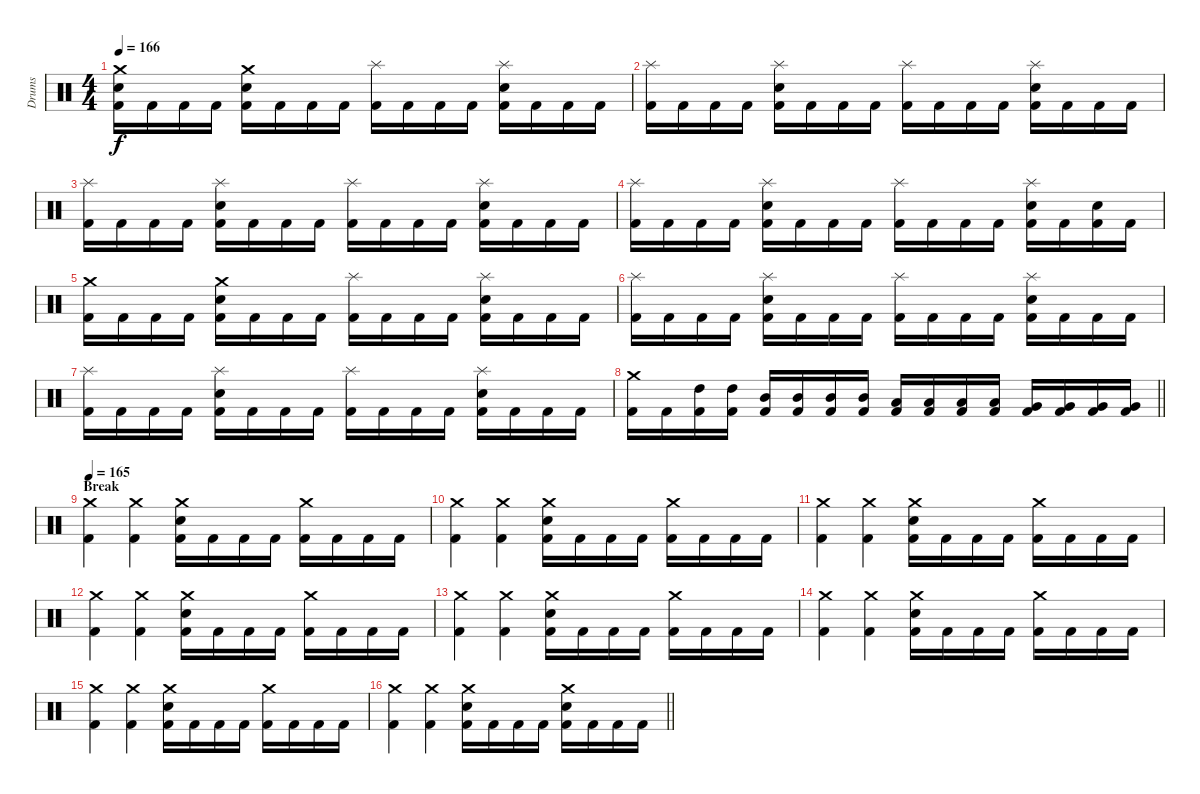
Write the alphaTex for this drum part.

\track ("Drums" "Drums") {instrument percussion}
\staff {score}
\articulation defaults
\ts (4 4)
\section ("" "")
\tempo 166
\clef neutral
\ks c
("Kick (hit) 2" "Snare (hit) 2" "Crash medium (hit)").16{dy f} "Kick (hit) 2".16 "Kick (hit) 2".16 "Kick (hit) 2".16 ("Kick (hit) 2" "Snare (hit) 2" "Crash medium (hit)").16 "Kick (hit) 2".16 "Kick (hit) 2".16 "Kick (hit) 2".16 ("Kick (hit) 2" "Splash (hit)").16 "Kick (hit) 2".16 "Kick (hit) 2".16 "Kick (hit) 2".16 ("Kick (hit) 2" "Snare (hit) 2" "Splash (hit)").16 "Kick (hit) 2".16 "Kick (hit) 2".16 "Kick (hit) 2".16 |
("Kick (hit) 2" "Splash (hit)").16 "Kick (hit) 2".16 "Kick (hit) 2".16 "Kick (hit) 2".16 ("Kick (hit) 2" "Snare (hit) 2" "Splash (hit)").16 "Kick (hit) 2".16 "Kick (hit) 2".16 "Kick (hit) 2".16 ("Kick (hit) 2" "Splash (hit)").16 "Kick (hit) 2".16 "Kick (hit) 2".16 "Kick (hit) 2".16 ("Kick (hit) 2" "Snare (hit) 2" "Splash (hit)").16 "Kick (hit) 2".16 "Kick (hit) 2".16 "Kick (hit) 2".16 |
("Kick (hit) 2" "Splash (hit)").16 "Kick (hit) 2".16 "Kick (hit) 2".16 "Kick (hit) 2".16 ("Kick (hit) 2" "Snare (hit) 2" "Splash (hit)").16 "Kick (hit) 2".16 "Kick (hit) 2".16 "Kick (hit) 2".16 ("Kick (hit) 2" "Splash (hit)").16 "Kick (hit) 2".16 "Kick (hit) 2".16 "Kick (hit) 2".16 ("Kick (hit) 2" "Snare (hit) 2" "Splash (hit)").16 "Kick (hit) 2".16 "Kick (hit) 2".16 "Kick (hit) 2".16 |
("Kick (hit) 2" "Splash (hit)").16 "Kick (hit) 2".16 "Kick (hit) 2".16 "Kick (hit) 2".16 ("Kick (hit) 2" "Snare (hit) 2" "Splash (hit)").16 "Kick (hit) 2".16 "Kick (hit) 2".16 "Kick (hit) 2".16 ("Kick (hit) 2" "Splash (hit)").16 "Kick (hit) 2".16 "Kick (hit) 2".16 "Kick (hit) 2".16 ("Kick (hit) 2" "Snare (hit) 2" "Splash (hit)").16 "Kick (hit) 2".16 ("Kick (hit) 2" "Snare (hit) 2").16 "Kick (hit) 2".16 |
("Kick (hit) 2" "Crash medium (hit)").16 "Kick (hit) 2".16 "Kick (hit) 2".16 "Kick (hit) 2".16 ("Kick (hit) 2" "Snare (hit) 2" "Crash medium (hit)").16 "Kick (hit) 2".16 "Kick (hit) 2".16 "Kick (hit) 2".16 ("Kick (hit) 2" "Splash (hit)").16 "Kick (hit) 2".16 "Kick (hit) 2".16 "Kick (hit) 2".16 ("Kick (hit) 2" "Snare (hit) 2" "Splash (hit)").16 "Kick (hit) 2".16 "Kick (hit) 2".16 "Kick (hit) 2".16 |
("Kick (hit) 2" "Splash (hit)").16 "Kick (hit) 2".16 "Kick (hit) 2".16 "Kick (hit) 2".16 ("Kick (hit) 2" "Snare (hit) 2" "Splash (hit)").16 "Kick (hit) 2".16 "Kick (hit) 2".16 "Kick (hit) 2".16 ("Kick (hit) 2" "Splash (hit)").16 "Kick (hit) 2".16 "Kick (hit) 2".16 "Kick (hit) 2".16 ("Kick (hit) 2" "Snare (hit) 2" "Splash (hit)").16 "Kick (hit) 2".16 "Kick (hit) 2".16 "Kick (hit) 2".16 |
("Kick (hit) 2" "Splash (hit)").16 "Kick (hit) 2".16 "Kick (hit) 2".16 "Kick (hit) 2".16 ("Kick (hit) 2" "Snare (hit) 2" "Splash (hit)").16 "Kick (hit) 2".16 "Kick (hit) 2".16 "Kick (hit) 2".16 ("Kick (hit) 2" "Splash (hit)").16 "Kick (hit) 2".16 "Kick (hit) 2".16 "Kick (hit) 2".16 ("Kick (hit) 2" "Snare (hit) 2" "Splash (hit)").16 "Kick (hit) 2".16 "Kick (hit) 2".16 "Kick (hit) 2".16 |
\barLineRight lightlight
("Kick (hit) 2" "Crash medium (hit)").16 "Kick (hit) 2".16 ("Kick (hit) 2" "High Tom (hit)").16 ("Kick (hit) 2" "High Tom (hit)").16 ("Kick (hit) 2" "Mid Tom (hit)").16 ("Kick (hit) 2" "Mid Tom (hit)").16 ("Kick (hit) 2" "Mid Tom (hit)").16 ("Kick (hit) 2" "Mid Tom (hit)").16 ("Kick (hit) 2" "Low Tom (hit)").16 ("Kick (hit) 2" "Low Tom (hit)").16 ("Kick (hit) 2" "Low Tom (hit)").16 ("Kick (hit) 2" "Low Tom (hit)").16 ("Kick (hit) 2" "Very Low Tom (hit)").16 ("Kick (hit) 2" "Very Low Tom (hit)").16 ("Kick (hit) 2" "Very Low Tom (hit)").16 ("Kick (hit) 2" "Very Low Tom (hit)").16 |
\section ("" "Break")
\tempo 165
("Kick (hit) 2" "Crash medium (hit)").4 ("Kick (hit) 2" "Crash medium (hit)").4 ("Kick (hit) 2" "Snare (hit) 2" "Crash medium (hit)").16 "Kick (hit) 2".16 "Kick (hit) 2".16 "Kick (hit) 2".16 ("Kick (hit) 2" "Crash medium (hit)").16 "Kick (hit) 2".16 "Kick (hit) 2".16 "Kick (hit) 2".16 |
("Kick (hit) 2" "Crash medium (hit)").4 ("Kick (hit) 2" "Crash medium (hit)").4 ("Kick (hit) 2" "Snare (hit) 2" "Crash medium (hit)").16 "Kick (hit) 2".16 "Kick (hit) 2".16 "Kick (hit) 2".16 ("Kick (hit) 2" "Crash medium (hit)").16 "Kick (hit) 2".16 "Kick (hit) 2".16 "Kick (hit) 2".16 |
("Kick (hit) 2" "Crash medium (hit)").4 ("Kick (hit) 2" "Crash medium (hit)").4 ("Kick (hit) 2" "Snare (hit) 2" "Crash medium (hit)").16 "Kick (hit) 2".16 "Kick (hit) 2".16 "Kick (hit) 2".16 ("Kick (hit) 2" "Crash medium (hit)").16 "Kick (hit) 2".16 "Kick (hit) 2".16 "Kick (hit) 2".16 |
("Kick (hit) 2" "Crash medium (hit)").4 ("Kick (hit) 2" "Crash medium (hit)").4 ("Kick (hit) 2" "Snare (hit) 2" "Crash medium (hit)").16 "Kick (hit) 2".16 "Kick (hit) 2".16 "Kick (hit) 2".16 ("Kick (hit) 2" "Crash medium (hit)").16 "Kick (hit) 2".16 "Kick (hit) 2".16 "Kick (hit) 2".16 |
("Kick (hit) 2" "Crash medium (hit)").4 ("Kick (hit) 2" "Crash medium (hit)").4 ("Kick (hit) 2" "Snare (hit) 2" "Crash medium (hit)").16 "Kick (hit) 2".16 "Kick (hit) 2".16 "Kick (hit) 2".16 ("Kick (hit) 2" "Crash medium (hit)").16 "Kick (hit) 2".16 "Kick (hit) 2".16 "Kick (hit) 2".16 |
("Kick (hit) 2" "Crash medium (hit)").4 ("Kick (hit) 2" "Crash medium (hit)").4 ("Kick (hit) 2" "Snare (hit) 2" "Crash medium (hit)").16 "Kick (hit) 2".16 "Kick (hit) 2".16 "Kick (hit) 2".16 ("Kick (hit) 2" "Crash medium (hit)").16 "Kick (hit) 2".16 "Kick (hit) 2".16 "Kick (hit) 2".16 |
("Kick (hit) 2" "Crash medium (hit)").4 ("Kick (hit) 2" "Crash medium (hit)").4 ("Kick (hit) 2" "Snare (hit) 2" "Crash medium (hit)").16 "Kick (hit) 2".16 "Kick (hit) 2".16 "Kick (hit) 2".16 ("Kick (hit) 2" "Crash medium (hit)").16 "Kick (hit) 2".16 "Kick (hit) 2".16 "Kick (hit) 2".16 |
\barLineRight lightlight
("Kick (hit) 2" "Crash medium (hit)").4 ("Kick (hit) 2" "Crash medium (hit)").4 ("Kick (hit) 2" "Snare (hit) 2" "Crash medium (hit)").16 "Kick (hit) 2".16 "Kick (hit) 2".16 "Kick (hit) 2".16 ("Kick (hit) 2" "Snare (hit) 2" "Crash medium (hit)").16 "Kick (hit) 2".16 "Kick (hit) 2".16 "Kick (hit) 2".16
